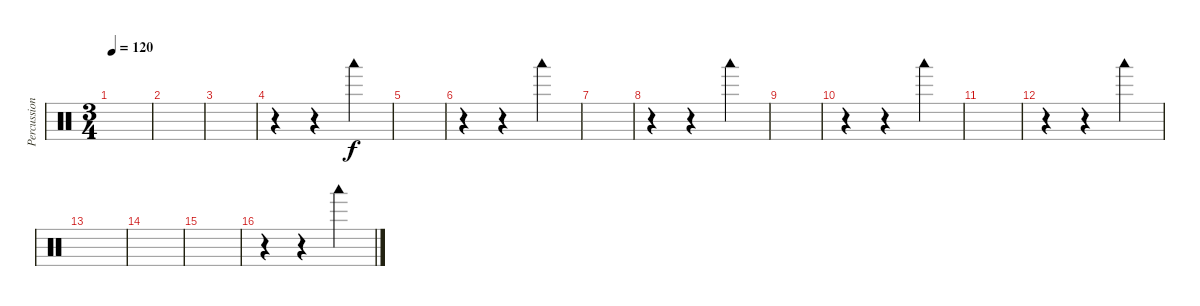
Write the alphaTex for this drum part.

\track ("Percussion" "Percussion") {instrument percussion}
\staff {score}
\articulation defaults
\ts (3 4)
\tempo 120
\clef neutral
\ks c
|
|
|
r.4 r.4 "Woodblock low (hit)".4 |
|
r.4 r.4 "Woodblock low (hit)".4 |
|
r.4 r.4 "Woodblock low (hit)".4 |
|
r.4 r.4 "Woodblock low (hit)".4 |
|
r.4 r.4 "Woodblock low (hit)".4 |
|
|
|
r.4 r.4 "Woodblock low (hit)".4
